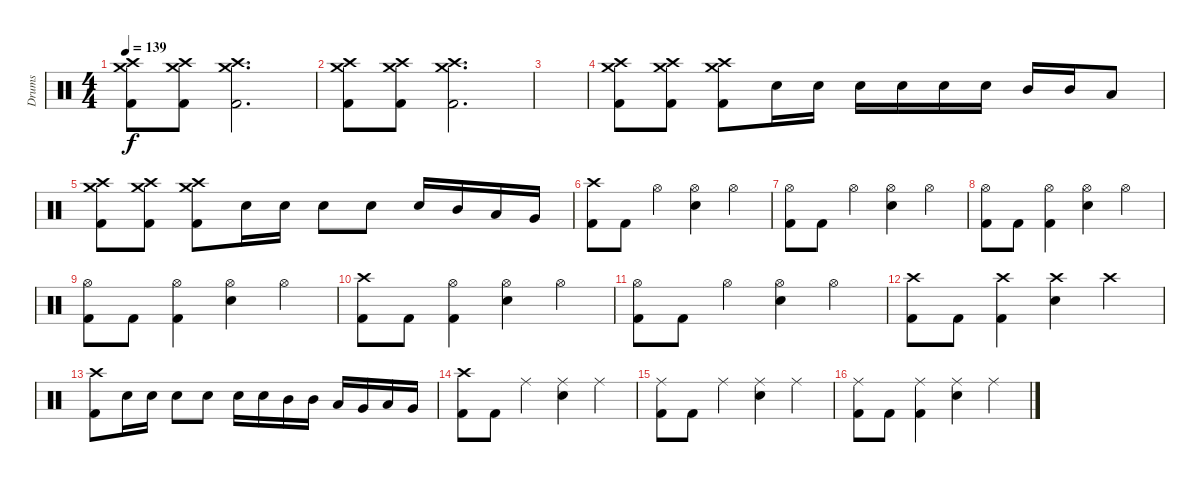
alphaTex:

\track ("Drums" "Drums") {instrument percussion}
\staff {score}
\articulation defaults
\ts (4 4)
\tempo 139
\clef neutral
\ks c
("Crash high (hit)" "Crash medium (hit)" "Kick (hit) 2").8{dy f} ("Crash high (hit)" "Crash medium (hit)" "Kick (hit) 2").8 ("Crash high (hit)" "Crash medium (hit)" "Kick (hit) 2").2{d} |
("Crash high (hit)" "Crash medium (hit)" "Kick (hit) 2").8 ("Crash high (hit)" "Crash medium (hit)" "Kick (hit) 2").8 ("Crash high (hit)" "Crash medium (hit)" "Kick (hit) 2").2{d} |
|
("Crash high (hit)" "Crash medium (hit)" "Kick (hit) 2").8 ("Crash high (hit)" "Crash medium (hit)" "Kick (hit) 2").8 ("Crash high (hit)" "Crash medium (hit)" "Kick (hit) 2").8 "Electric Snare (hit)".16 "Electric Snare (hit)".16 "Electric Snare (hit)".16 "Electric Snare (hit)".16 "Electric Snare (hit)".16 "Electric Snare (hit)".16 "Mid Tom (hit)".16 "Mid Tom (hit)".16 "Low Tom (hit)".8 |
("Crash high (hit)" "Crash medium (hit)" "Kick (hit) 2").8 ("Crash high (hit)" "Crash medium (hit)" "Kick (hit) 2").8 ("Crash high (hit)" "Crash medium (hit)" "Kick (hit) 2").8 "Electric Snare (hit)".16 "Electric Snare (hit)".16 "Electric Snare (hit)".8 "Electric Snare (hit)".8 "Electric Snare (hit)".16 "Mid Tom (hit)".16 "Low Tom (hit)".16 "Very Low Tom (hit)".16 |
("Crash high (hit)" "Kick (hit) 2").8 "Kick (hit) 2".8 "Hi-Hat (open)".4 ("Hi-Hat (open)" "Electric Snare (hit)").4 "Hi-Hat (open)".4 |
("Hi-Hat (open)" "Kick (hit) 2").8 "Kick (hit) 2".8 "Hi-Hat (open)".4 ("Hi-Hat (open)" "Electric Snare (hit)").4 "Hi-Hat (open)".4 |
("Hi-Hat (open)" "Kick (hit) 2").8 "Kick (hit) 2".8 ("Hi-Hat (open)" "Kick (hit) 2").4 ("Hi-Hat (open)" "Electric Snare (hit)").4 "Hi-Hat (open)".4 |
("Hi-Hat (open)" "Kick (hit) 2").8 "Kick (hit) 2".8 ("Hi-Hat (open)" "Kick (hit) 2").4 ("Hi-Hat (open)" "Electric Snare (hit)").4 "Hi-Hat (open)".4 |
("Crash high (hit)" "Kick (hit) 2").8 "Kick (hit) 2".8 ("Hi-Hat (open)" "Kick (hit) 2").4 ("Hi-Hat (open)" "Electric Snare (hit)").4 "Hi-Hat (open)".4 |
("Hi-Hat (open)" "Kick (hit) 2").8 "Kick (hit) 2".8 "Hi-Hat (open)".4 ("Hi-Hat (open)" "Electric Snare (hit)").4 "Hi-Hat (open)".4 |
("Crash high (hit)" "Kick (hit) 2").8 "Kick (hit) 2".8 ("Crash high (hit)" "Kick (hit) 2").4 ("Crash high (hit)" "Electric Snare (hit)").4 "Crash high (hit)".4 |
("Crash high (hit)" "Kick (hit) 2").8 "Electric Snare (hit)".16 "Electric Snare (hit)".16 "Electric Snare (hit)".8 "Electric Snare (hit)".8 "Electric Snare (hit)".16 "Electric Snare (hit)".16 "Mid Tom (hit)".16 "Mid Tom (hit)".16 "Low Tom (hit)".16 "Very Low Tom (hit)".16 "Low Tom (hit)".16 "Very Low Tom (hit)".16 |
("Crash high (hit)" "Kick (hit) 2").8 "Kick (hit) 2".8 "Ride (middle)".4 ("Ride (middle)" "Electric Snare (hit)").4 "Ride (middle)".4 |
("Ride (middle)" "Kick (hit) 2").8 "Kick (hit) 2".8 "Ride (middle)".4 ("Ride (middle)" "Electric Snare (hit)").4 "Ride (middle)".4 |
("Ride (middle)" "Kick (hit) 2").8 "Kick (hit) 2".8 ("Ride (middle)" "Kick (hit) 2").4 ("Ride (middle)" "Electric Snare (hit)").4 "Ride (middle)".4
